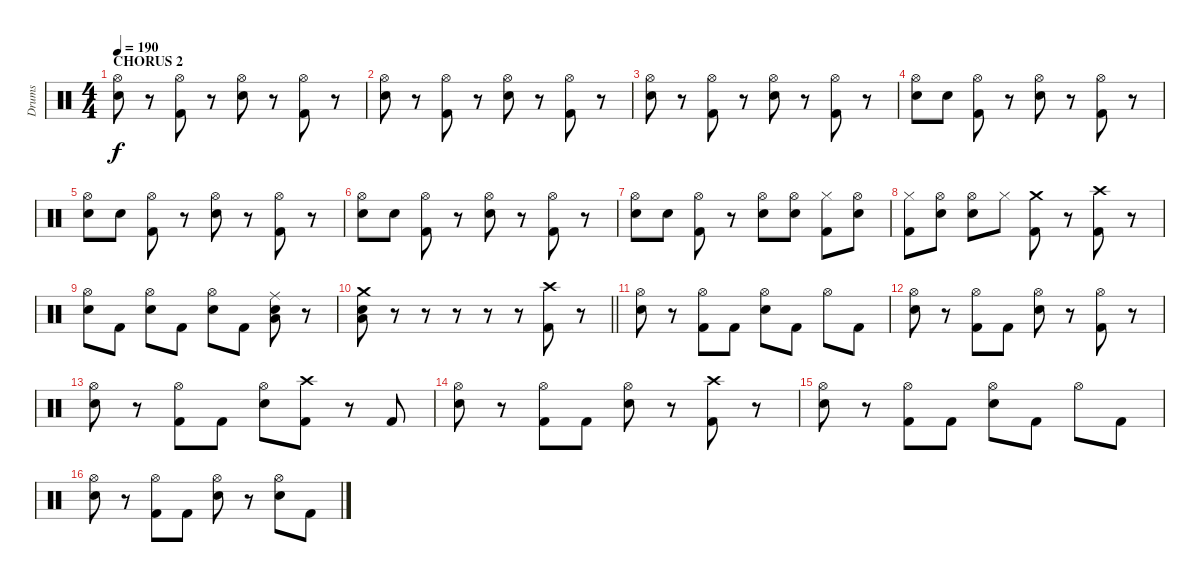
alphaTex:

\track ("Drums" "Drums") {instrument percussion}
\staff {score}
\articulation defaults
\ts (4 4)
\section ("" "CHORUS 2")
\tempo 190
\clef neutral
\ks c
("Snare (hit) 2" "Hi-Hat (open)").8{dy f} r.8 ("Kick (hit) 2" "Hi-Hat (open)").8 r.8 ("Snare (hit) 2" "Hi-Hat (open)").8 r.8 ("Kick (hit) 2" "Hi-Hat (open)").8 r.8 |
("Snare (hit) 2" "Hi-Hat (open)").8 r.8 ("Kick (hit) 2" "Hi-Hat (open)").8 r.8 ("Snare (hit) 2" "Hi-Hat (open)").8 r.8 ("Kick (hit) 2" "Hi-Hat (open)").8 r.8 |
("Snare (hit) 2" "Hi-Hat (open)").8 r.8 ("Kick (hit) 2" "Hi-Hat (open)").8 r.8 ("Snare (hit) 2" "Hi-Hat (open)").8 r.8 ("Kick (hit) 2" "Hi-Hat (open)").8 r.8 |
("Snare (hit) 2" "Hi-Hat (open)").8 "Snare (hit) 2".8 ("Kick (hit) 2" "Hi-Hat (open)").8 r.8 ("Snare (hit) 2" "Hi-Hat (open)").8 r.8 ("Kick (hit) 2" "Hi-Hat (open)").8 r.8 |
("Snare (hit) 2" "Hi-Hat (open)").8 "Snare (hit) 2".8 ("Kick (hit) 2" "Hi-Hat (open)").8 r.8 ("Snare (hit) 2" "Hi-Hat (open)").8 r.8 ("Kick (hit) 2" "Hi-Hat (open)").8 r.8 |
("Snare (hit) 2" "Hi-Hat (open)").8 "Snare (hit) 2".8 ("Kick (hit) 2" "Hi-Hat (open)").8 r.8 ("Snare (hit) 2" "Hi-Hat (open)").8 r.8 ("Kick (hit) 2" "Hi-Hat (open)").8 r.8 |
("Snare (hit) 2" "Hi-Hat (open)").8 "Snare (hit) 2".8 ("Kick (hit) 2" "Hi-Hat (open)").8 r.8 ("Snare (hit) 2" "Hi-Hat (open)").8 ("Snare (hit) 2" "Hi-Hat (open)").8 ("Kick (hit) 2" "Hi-Hat (closed)").8 ("Snare (hit) 2" "Hi-Hat (open)").8 |
("Kick (hit) 2" "Hi-Hat (closed)").8 ("Snare (hit) 2" "Hi-Hat (open)").8 ("Snare (hit) 2" "Hi-Hat (open)").8 "Hi-Hat (closed)".8 ("Kick (hit) 2" "Crash medium (hit)").8 r.8 ("Kick (hit) 2" "Crash high (hit)").8 r.8 |
("Snare (hit) 2" "Hi-Hat (open)").8 "Kick (hit) 2".8 ("Snare (hit) 2" "Hi-Hat (open)").8 "Kick (hit) 2".8 ("Snare (hit) 2" "Hi-Hat (open)").8 "Kick (hit) 2".8 ("Low Floor Tom (hit)" "Snare (hit) 2" "Ride (middle)").8 r.8 |
\barLineRight lightlight
("Low Floor Tom (hit)" "Snare (hit) 2" "Crash medium (hit)").8 r.8 r.8 r.8 r.8 r.8 ("Kick (hit) 2" "Crash high (hit)").8 r.8 |
\section ("" "")
("Snare (hit) 2" "Hi-Hat (open)").8 r.8 ("Kick (hit) 2" "Hi-Hat (open)").8 "Kick (hit) 2".8 ("Snare (hit) 2" "Hi-Hat (open)").8 "Kick (hit) 2".8 "Hi-Hat (open)".8 "Kick (hit) 2".8 |
("Snare (hit) 2" "Hi-Hat (open)").8 r.8 ("Kick (hit) 2" "Hi-Hat (open)").8 "Kick (hit) 2".8 ("Snare (hit) 2" "Hi-Hat (open)").8 r.8 ("Kick (hit) 2" "Hi-Hat (open)").8 r.8 |
("Snare (hit) 2" "Hi-Hat (open)").8 r.8 ("Kick (hit) 2" "Hi-Hat (open)").8 "Kick (hit) 2".8 ("Snare (hit) 2" "Hi-Hat (open)").8 ("Kick (hit) 2" "Crash high (hit)").8 r.8 "Kick (hit) 2".8 |
("Snare (hit) 2" "Hi-Hat (open)").8 r.8 ("Kick (hit) 2" "Hi-Hat (open)").8 "Kick (hit) 2".8 ("Snare (hit) 2" "Hi-Hat (open)").8 r.8 ("Kick (hit) 2" "Crash high (hit)").8 r.8 |
("Snare (hit) 2" "Hi-Hat (open)").8 r.8 ("Kick (hit) 2" "Hi-Hat (open)").8 "Kick (hit) 2".8 ("Snare (hit) 2" "Hi-Hat (open)").8 "Kick (hit) 2".8 "Hi-Hat (open)".8 "Kick (hit) 2".8 |
("Snare (hit) 2" "Hi-Hat (open)").8 r.8 ("Kick (hit) 2" "Hi-Hat (open)").8 "Kick (hit) 2".8 ("Snare (hit) 2" "Hi-Hat (open)").8 r.8 ("Snare (hit) 2" "Hi-Hat (open)").8 "Kick (hit) 2".8
